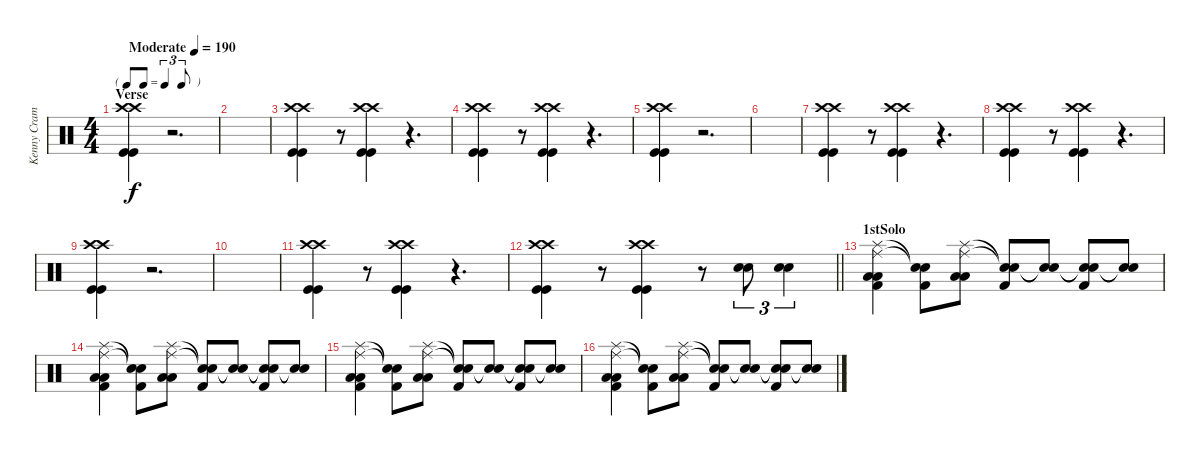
\track ("Kenny Cramme" "Kenny Cram") {instrument percussion}
\staff {score}
\articulation defaults
\ts (4 4)
\tf triplet8th
\section ("" "Verse")
\tempo (190 "Moderate")
\clef neutral
\ks c
("Crash high (hit)" "Crash high (hit)" "Kick (hit)" "Kick (hit)").4{dy f} r.2{d} |
|
("Crash high (hit)" "Crash high (hit)" "Kick (hit)" "Kick (hit)").4 r.8 ("Crash high (hit)" "Crash high (hit)" "Kick (hit)" "Kick (hit)").4 r.4{d} |
("Crash high (hit)" "Crash high (hit)" "Kick (hit)" "Kick (hit)").4 r.8 ("Crash high (hit)" "Crash high (hit)" "Kick (hit)" "Kick (hit)").4 r.4{d} |
("Crash high (hit)" "Crash high (hit)" "Kick (hit)" "Kick (hit)").4 r.2{d} |
|
("Crash high (hit)" "Crash high (hit)" "Kick (hit)" "Kick (hit)").4 r.8 ("Crash high (hit)" "Crash high (hit)" "Kick (hit)" "Kick (hit)").4 r.4{d} |
("Crash high (hit)" "Crash high (hit)" "Kick (hit)" "Kick (hit)").4 r.8 ("Crash high (hit)" "Crash high (hit)" "Kick (hit)" "Kick (hit)").4 r.4{d} |
("Crash high (hit)" "Crash high (hit)" "Kick (hit)" "Kick (hit)").4 r.2{d} |
|
("Crash high (hit)" "Crash high (hit)" "Kick (hit)" "Kick (hit)").4 r.8 ("Crash high (hit)" "Crash high (hit)" "Kick (hit)" "Kick (hit)").4 r.4{d} |
\barLineRight lightlight
("Crash high (hit)" "Crash high (hit)" "Kick (hit)" "Kick (hit)").4 r.8 ("Crash high (hit)" "Crash high (hit)" "Kick (hit)" "Kick (hit)").4 r.8 ("Snare (hit) 2" "Snare (hit) 2").8{tu (3 2)} ("Snare (hit) 2" "Snare (hit) 2").4{tu (3 2)} |
\section ("" "1stSolo")
("Ride (middle)" "Splash (hit)" "Low Floor Tom (hit)" "Low Floor Tom (hit)" "Kick (hit) 2").4 ("Snare (hit)"{t} "Snare (hit)"{t} "Kick (hit) 2").8 ("Ride (middle)" "Splash (hit)" "Low Floor Tom (hit)" "Low Floor Tom (hit)").8 ("Snare (hit)"{t} "Snare (hit)"{t} "Kick (hit) 2").8 ("Snare (hit)"{t} "Snare (hit)"{t}).8 ("Snare (hit)"{t} "Snare (hit)"{t} "Kick (hit) 2").8 ("Snare (hit)"{t} "Snare (hit)"{t}).8 |
("Ride (middle)" "Splash (hit)" "Low Floor Tom (hit)" "Low Floor Tom (hit)" "Kick (hit) 2").4 ("Snare (hit)"{t} "Snare (hit)"{t} "Kick (hit) 2").8 ("Ride (middle)" "Splash (hit)" "Low Floor Tom (hit)" "Low Floor Tom (hit)").8 ("Snare (hit)"{t} "Snare (hit)"{t} "Kick (hit) 2").8 ("Snare (hit)"{t} "Snare (hit)"{t}).8 ("Snare (hit)"{t} "Snare (hit)"{t} "Kick (hit) 2").8 ("Snare (hit)"{t} "Snare (hit)"{t}).8 |
("Ride (middle)" "Splash (hit)" "Low Floor Tom (hit)" "Low Floor Tom (hit)" "Kick (hit) 2").4 ("Snare (hit)"{t} "Snare (hit)"{t} "Kick (hit) 2").8 ("Ride (middle)" "Splash (hit)" "Low Floor Tom (hit)" "Low Floor Tom (hit)").8 ("Snare (hit)"{t} "Snare (hit)"{t} "Kick (hit) 2").8 ("Snare (hit)"{t} "Snare (hit)"{t}).8 ("Snare (hit)"{t} "Snare (hit)"{t} "Kick (hit) 2").8 ("Snare (hit)"{t} "Snare (hit)"{t}).8 |
("Ride (middle)" "Splash (hit)" "Low Floor Tom (hit)" "Low Floor Tom (hit)" "Kick (hit) 2").4 ("Snare (hit)"{t} "Snare (hit)"{t} "Kick (hit) 2").8 ("Ride (middle)" "Splash (hit)" "Low Floor Tom (hit)" "Low Floor Tom (hit)").8 ("Snare (hit)"{t} "Snare (hit)"{t} "Kick (hit) 2").8 ("Snare (hit)"{t} "Snare (hit)"{t}).8 ("Snare (hit)"{t} "Snare (hit)"{t} "Kick (hit) 2").8 ("Snare (hit)"{t} "Snare (hit)"{t}).8
